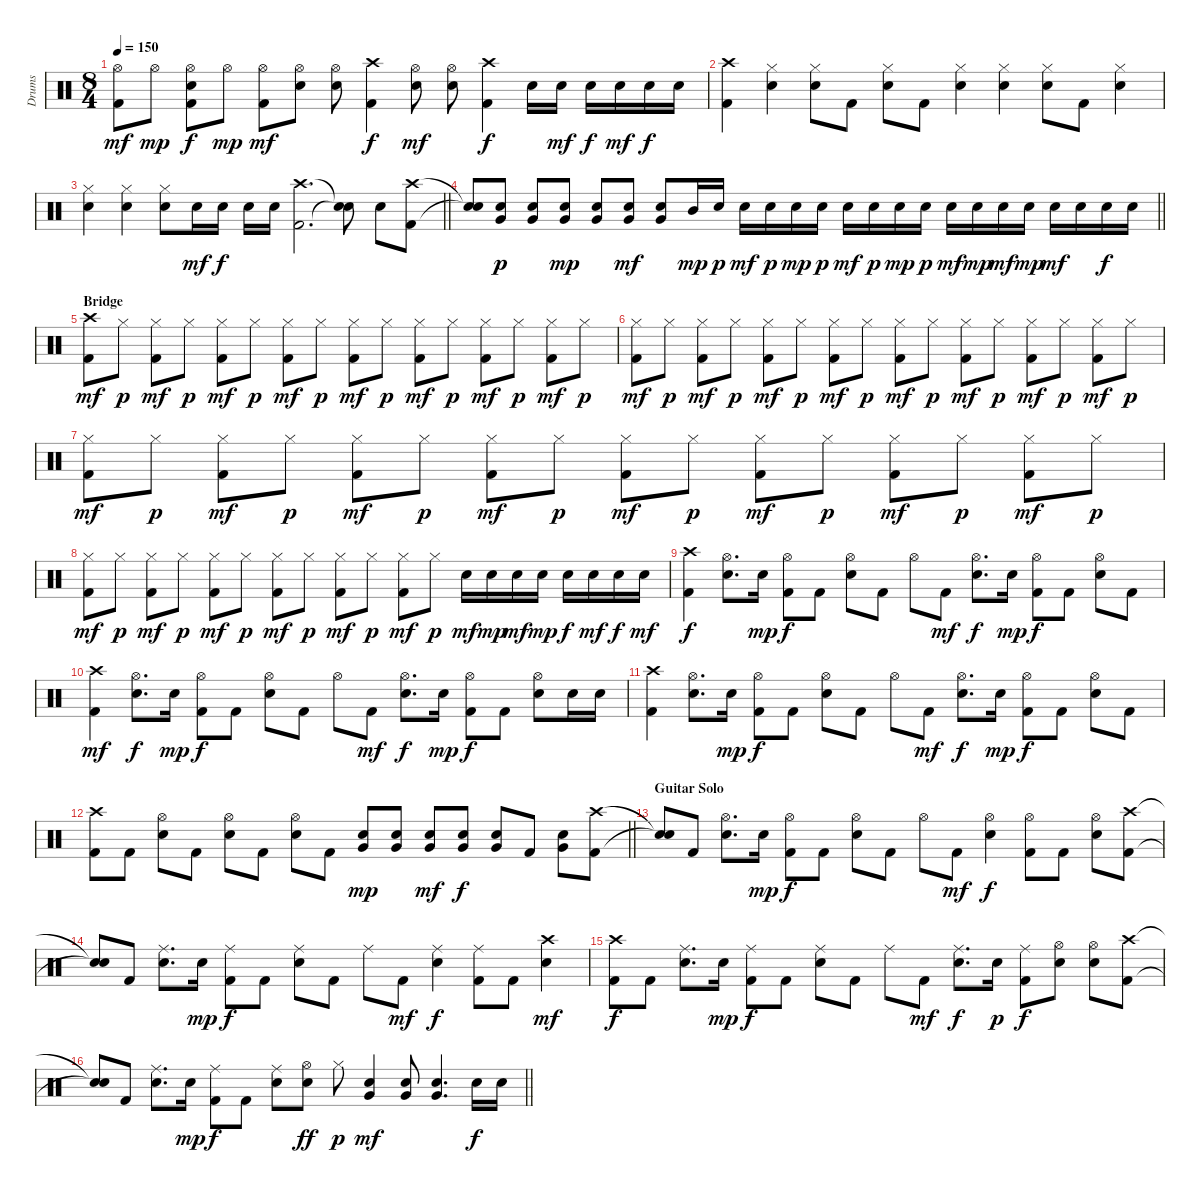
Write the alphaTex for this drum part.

\track ("Drums" "Drums") {instrument percussion}
\staff {score}
\articulation defaults
\ts (8 4)
\tempo 150
\clef neutral
\ks c
("Hi-Hat (open)" "Kick (hit) 2").8{dy mf} "Hi-Hat (open)".8{dy mp} ("Hi-Hat (open)" "Electric Snare (hit)" "Kick (hit) 2").8{dy f} "Hi-Hat (open)".8{dy mp} ("Hi-Hat (open)" "Kick (hit) 2").8{dy mf} ("Hi-Hat (open)" "Electric Snare (hit)").8 ("Hi-Hat (open)" "Electric Snare (hit)").8 ("Crash high (hit)" "Kick (hit) 2").4{dy f} ("Hi-Hat (open)" "Electric Snare (hit)").8{dy mf} ("Hi-Hat (open)" "Electric Snare (hit)").8 ("Crash high (hit)" "Kick (hit) 2").4{dy f} "Electric Snare (hit)".16 "Electric Snare (hit)".16{dy mf} "Electric Snare (hit)".16{dy f} "Electric Snare (hit)".16{dy mf} "Electric Snare (hit)".16{dy f} "Electric Snare (hit)".16 |
("Crash high (hit)" "Kick (hit) 2").4 ("Hi-Hat (closed)" "Electric Snare (hit)").4 ("Hi-Hat (closed)" "Electric Snare (hit)").8 "Kick (hit) 2".8 ("Hi-Hat (closed)" "Electric Snare (hit)").8 "Kick (hit) 2".8 ("Hi-Hat (closed)" "Electric Snare (hit)").4 ("Hi-Hat (closed)" "Electric Snare (hit)").4 ("Hi-Hat (closed)" "Electric Snare (hit)").8 "Kick (hit) 2".8 ("Hi-Hat (closed)" "Electric Snare (hit)").4 |
\barLineRight lightlight
("Hi-Hat (closed)" "Electric Snare (hit)").4 ("Hi-Hat (closed)" "Electric Snare (hit)").4 ("Hi-Hat (closed)" "Electric Snare (hit)").8 "Electric Snare (hit)".16{dy mf} "Electric Snare (hit)".16{dy f} "Electric Snare (hit)".16 "Electric Snare (hit)".16 ("Crash high (hit)" "Kick (hit) 2").2{d} ("Snare (hit)"{t} "Snare (hit)"{t}).8 "Electric Snare (hit)".8 ("Crash high (hit)" "Kick (hit) 2").8 |
\barLineRight lightlight
("Snare (hit)"{t} "Snare (hit)"{t}).8 ("Electric Snare (hit)" "Very Low Tom (hit)").8{dy p} ("Electric Snare (hit)" "Very Low Tom (hit)").8 ("Electric Snare (hit)" "Very Low Tom (hit)").8{dy mp} ("Electric Snare (hit)" "Very Low Tom (hit)").8 ("Electric Snare (hit)" "Very Low Tom (hit)").8{dy mf} ("Electric Snare (hit)" "Very Low Tom (hit)").8 "Mid Tom (hit)".16{dy mp} "Electric Snare (hit)".16{dy p} "Electric Snare (hit)".16{dy mf} "Electric Snare (hit)".16{dy p} "Electric Snare (hit)".16{dy mp} "Electric Snare (hit)".16{dy p} "Electric Snare (hit)".16{dy mf} "Electric Snare (hit)".16{dy p} "Electric Snare (hit)".16{dy mp} "Electric Snare (hit)".16{dy p} "Electric Snare (hit)".16{dy mf} "Electric Snare (hit)".16{dy mp} "Electric Snare (hit)".16{dy mf} "Electric Snare (hit)".16{dy mp} "Electric Snare (hit)".16{dy mf} "Electric Snare (hit)".16 "Electric Snare (hit)".16{dy f} "Electric Snare (hit)".16 |
\section ("" "Bridge")
("Crash high (hit)" "Kick (hit) 2").8{dy mf} "Hi-Hat (closed)".8{dy p} ("Hi-Hat (closed)" "Kick (hit) 2").8{dy mf} "Hi-Hat (closed)".8{dy p} ("Hi-Hat (closed)" "Kick (hit) 2").8{dy mf} "Hi-Hat (closed)".8{dy p} ("Hi-Hat (closed)" "Kick (hit) 2").8{dy mf} "Hi-Hat (closed)".8{dy p} ("Hi-Hat (closed)" "Kick (hit) 2").8{dy mf} "Hi-Hat (closed)".8{dy p} ("Hi-Hat (closed)" "Kick (hit) 2").8{dy mf} "Hi-Hat (closed)".8{dy p} ("Hi-Hat (closed)" "Kick (hit) 2").8{dy mf} "Hi-Hat (closed)".8{dy p} ("Hi-Hat (closed)" "Kick (hit) 2").8{dy mf} "Hi-Hat (closed)".8{dy p} |
("Hi-Hat (closed)" "Kick (hit) 2").8{dy mf} "Hi-Hat (closed)".8{dy p} ("Hi-Hat (closed)" "Kick (hit) 2").8{dy mf} "Hi-Hat (closed)".8{dy p} ("Hi-Hat (closed)" "Kick (hit) 2").8{dy mf} "Hi-Hat (closed)".8{dy p} ("Hi-Hat (closed)" "Kick (hit) 2").8{dy mf} "Hi-Hat (closed)".8{dy p} ("Hi-Hat (closed)" "Kick (hit) 2").8{dy mf} "Hi-Hat (closed)".8{dy p} ("Hi-Hat (closed)" "Kick (hit) 2").8{dy mf} "Hi-Hat (closed)".8{dy p} ("Hi-Hat (closed)" "Kick (hit) 2").8{dy mf} "Hi-Hat (closed)".8{dy p} ("Hi-Hat (closed)" "Kick (hit) 2").8{dy mf} "Hi-Hat (closed)".8{dy p} |
("Hi-Hat (closed)" "Kick (hit) 2").8{dy mf} "Hi-Hat (closed)".8{dy p} ("Hi-Hat (closed)" "Kick (hit) 2").8{dy mf} "Hi-Hat (closed)".8{dy p} ("Hi-Hat (closed)" "Kick (hit) 2").8{dy mf} "Hi-Hat (closed)".8{dy p} ("Hi-Hat (closed)" "Kick (hit) 2").8{dy mf} "Hi-Hat (closed)".8{dy p} ("Hi-Hat (closed)" "Kick (hit) 2").8{dy mf} "Hi-Hat (closed)".8{dy p} ("Hi-Hat (closed)" "Kick (hit) 2").8{dy mf} "Hi-Hat (closed)".8{dy p} ("Hi-Hat (closed)" "Kick (hit) 2").8{dy mf} "Hi-Hat (closed)".8{dy p} ("Hi-Hat (closed)" "Kick (hit) 2").8{dy mf} "Hi-Hat (closed)".8{dy p} |
("Hi-Hat (closed)" "Kick (hit) 2").8{dy mf} "Hi-Hat (closed)".8{dy p} ("Hi-Hat (closed)" "Kick (hit) 2").8{dy mf} "Hi-Hat (closed)".8{dy p} ("Hi-Hat (closed)" "Kick (hit) 2").8{dy mf} "Hi-Hat (closed)".8{dy p} ("Hi-Hat (closed)" "Kick (hit) 2").8{dy mf} "Hi-Hat (closed)".8{dy p} ("Hi-Hat (closed)" "Kick (hit) 2").8{dy mf} "Hi-Hat (closed)".8{dy p} ("Hi-Hat (closed)" "Kick (hit) 2").8{dy mf} "Hi-Hat (closed)".8{dy p} "Electric Snare (hit)".16{dy mf} "Electric Snare (hit)".16{dy mp} "Electric Snare (hit)".16{dy mf} "Electric Snare (hit)".16{dy mp} "Electric Snare (hit)".16{dy f} "Electric Snare (hit)".16{dy mf} "Electric Snare (hit)".16{dy f} "Electric Snare (hit)".16{dy mf} |
("Crash high (hit)" "Kick (hit) 2").4{dy f} ("Hi-Hat (open)" "Electric Snare (hit)").8{d} "Electric Snare (hit)".16{dy mp} ("Hi-Hat (open)" "Kick (hit) 2").8{dy f} "Kick (hit) 2".8 ("Hi-Hat (open)" "Electric Snare (hit)").8 "Kick (hit) 2".8 "Hi-Hat (open)".8 "Kick (hit) 2".8{dy mf} ("Hi-Hat (open)" "Electric Snare (hit)").8{d dy f} "Electric Snare (hit)".16{dy mp} ("Hi-Hat (open)" "Kick (hit) 2").8{dy f} "Kick (hit) 2".8 ("Hi-Hat (open)" "Electric Snare (hit)").8 "Kick (hit) 2".8 |
("Crash high (hit)" "Kick (hit) 2").4{dy mf} ("Hi-Hat (open)" "Electric Snare (hit)").8{d dy f} "Electric Snare (hit)".16{dy mp} ("Hi-Hat (open)" "Kick (hit) 2").8{dy f} "Kick (hit) 2".8 ("Hi-Hat (open)" "Electric Snare (hit)").8 "Kick (hit) 2".8 "Hi-Hat (open)".8 "Kick (hit) 2".8{dy mf} ("Hi-Hat (open)" "Electric Snare (hit)").8{d dy f} "Electric Snare (hit)".16{dy mp} ("Hi-Hat (open)" "Kick (hit) 2").8{dy f} "Kick (hit) 2".8 ("Hi-Hat (open)" "Electric Snare (hit)").8 "Electric Snare (hit)".16 "Electric Snare (hit)".16 |
("Crash high (hit)" "Kick (hit) 2").4 ("Hi-Hat (open)" "Electric Snare (hit)").8{d} "Electric Snare (hit)".16{dy mp} ("Hi-Hat (open)" "Kick (hit) 2").8{dy f} "Kick (hit) 2".8 ("Hi-Hat (open)" "Electric Snare (hit)").8 "Kick (hit) 2".8 "Hi-Hat (open)".8 "Kick (hit) 2".8{dy mf} ("Hi-Hat (open)" "Electric Snare (hit)").8{d dy f} "Electric Snare (hit)".16{dy mp} ("Hi-Hat (open)" "Kick (hit) 2").8{dy f} "Kick (hit) 2".8 ("Hi-Hat (open)" "Electric Snare (hit)").8 "Kick (hit) 2".8 |
\barLineRight lightlight
("Crash high (hit)" "Kick (hit) 2").8 "Kick (hit) 2".8 ("Hi-Hat (open)" "Electric Snare (hit)").8 "Kick (hit) 2".8 ("Hi-Hat (open)" "Electric Snare (hit)").8 "Kick (hit) 2".8 ("Hi-Hat (open)" "Electric Snare (hit)").8 "Kick (hit) 2".8 ("Electric Snare (hit)" "Very Low Tom (hit)").8{dy mp} ("Electric Snare (hit)" "Very Low Tom (hit)").8 ("Electric Snare (hit)" "Very Low Tom (hit)").8{dy mf} ("Electric Snare (hit)" "Very Low Tom (hit)").8{dy f} ("Electric Snare (hit)" "Very Low Tom (hit)").8 "Kick (hit) 2".8 ("Electric Snare (hit)" "Very Low Tom (hit)").8 ("Crash high (hit)" "Kick (hit) 2").8 |
\section ("" "Guitar Solo")
("Snare (hit)"{t} "Snare (hit)"{t}).8 "Kick (hit) 2".8 ("Hi-Hat (open)" "Electric Snare (hit)").8{d} "Electric Snare (hit)".16{dy mp} ("Hi-Hat (open)" "Kick (hit) 2").8{dy f} "Kick (hit) 2".8 ("Hi-Hat (open)" "Electric Snare (hit)").8 "Kick (hit) 2".8 "Hi-Hat (open)".8 "Kick (hit) 2".8{dy mf} ("Hi-Hat (open)" "Electric Snare (hit)").4{dy f} ("Hi-Hat (open)" "Kick (hit) 2").8 "Kick (hit) 2".8 ("Hi-Hat (open)" "Electric Snare (hit)").8 ("Crash high (hit)" "Kick (hit) 2").8 |
("Snare (hit)"{t} "Snare (hit)"{t}).8 "Kick (hit) 2".8 ("Ride (middle)" "Electric Snare (hit)").8{d} "Electric Snare (hit)".16{dy mp} ("Ride (middle)" "Kick (hit) 2").8{dy f} "Kick (hit) 2".8 ("Ride (middle)" "Electric Snare (hit)").8 "Kick (hit) 2".8 "Ride (middle)".8 "Kick (hit) 2".8{dy mf} ("Ride (middle)" "Electric Snare (hit)").4{dy f} ("Ride (middle)" "Kick (hit) 2").8 "Kick (hit) 2".8 ("Crash high (hit)" "Electric Snare (hit)").4{dy mf} |
("Crash high (hit)" "Kick (hit) 2").8{dy f} "Kick (hit) 2".8 ("Ride (middle)" "Electric Snare (hit)").8{d} "Electric Snare (hit)".16{dy mp} ("Ride (middle)" "Kick (hit) 2").8{dy f} "Kick (hit) 2".8 ("Ride (middle)" "Electric Snare (hit)").8 "Kick (hit) 2".8 "Ride (middle)".8 "Kick (hit) 2".8{dy mf} ("Ride (middle)" "Electric Snare (hit)").8{d dy f} "Electric Snare (hit)".16{dy p} ("Ride (middle)" "Kick (hit) 2").8{dy f} ("Hi-Hat (open)" "Electric Snare (hit)").8 ("Hi-Hat (open)" "Electric Snare (hit)").8 ("Crash high (hit)" "Kick (hit) 2").8 |
\barLineRight lightlight
("Snare (hit)"{t} "Snare (hit)"{t}).8 "Kick (hit) 2".8 ("Ride (middle)" "Electric Snare (hit)").8{d} "Electric Snare (hit)".16{dy mp} ("Ride (middle)" "Kick (hit) 2").8{dy f} "Kick (hit) 2".8 ("Ride (middle)" "Electric Snare (hit)").8 ("Hi-Hat (open)" "Electric Snare (hit)").8{dy ff} "Hi-Hat (closed)".8{dy p} ("Electric Snare (hit)" "Very Low Tom (hit)").4{dy mf} ("Electric Snare (hit)" "Very Low Tom (hit)").8 ("Electric Snare (hit)" "Very Low Tom (hit)").4{d} "Electric Snare (hit)".16{dy f} "Electric Snare (hit)".16
